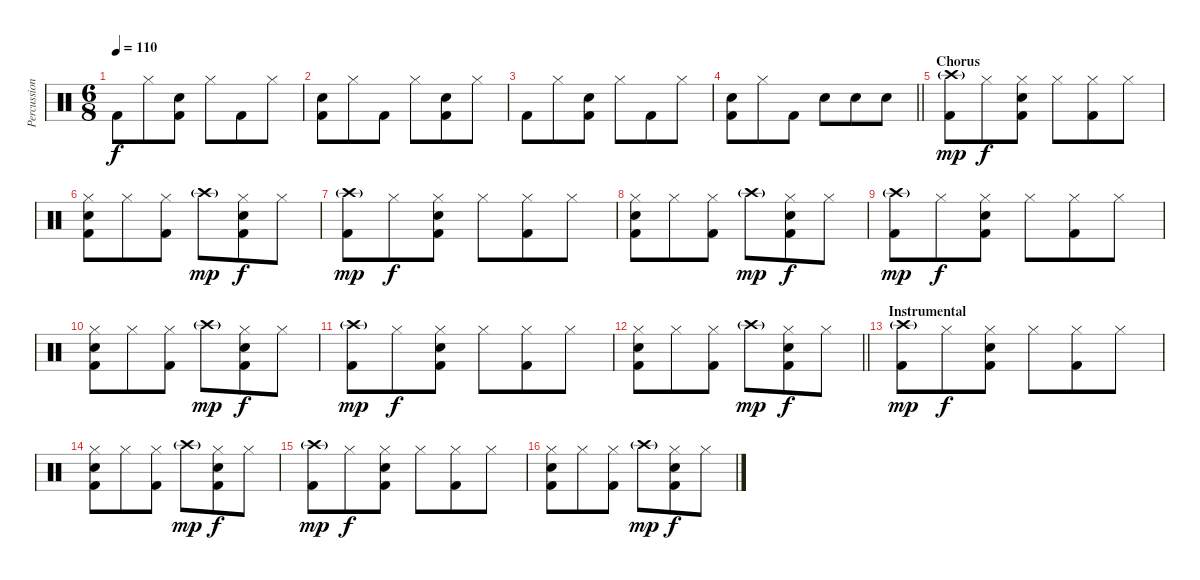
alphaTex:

\track ("Percussion" "Percussion") {instrument percussion}
\staff {score}
\articulation defaults
\ts (6 8)
\tempo 110
\clef neutral
\ks c "Kick (hit) 2".8{dy f} "Hi-Hat (closed)".8
("Snare (hit) 2" "Kick (hit) 2").8 "Hi-Hat (closed)".8 "Kick (hit) 2".8 "Hi-Hat (closed)".8 |
("Snare (hit) 2" "Kick (hit) 2").8 "Hi-Hat (closed)".8 "Kick (hit) 2".8 "Hi-Hat (closed)".8 ("Snare (hit) 2" "Kick (hit) 2").8 "Hi-Hat (closed)".8 |
"Kick (hit) 2".8 "Hi-Hat (closed)".8 ("Snare (hit) 2" "Kick (hit) 2").8 "Hi-Hat (closed)".8 "Kick (hit) 2".8 "Hi-Hat (closed)".8 |
\barLineRight lightlight
("Snare (hit) 2" "Kick (hit) 2").8 "Hi-Hat (closed)".8 "Kick (hit) 2".8 "Snare (hit) 2".8 "Snare (hit) 2".8 "Snare (hit) 2".8 |
\section ("" "Chorus")
("Crash high (hit)"{g} "Kick (hit) 2").8{dy mp} "Hi-Hat (closed)".8{dy f} ("Hi-Hat (closed)" "Snare (hit) 2" "Kick (hit) 2").8 "Hi-Hat (closed)".8 ("Hi-Hat (closed)" "Kick (hit) 2").8 "Hi-Hat (closed)".8 |
("Hi-Hat (closed)" "Snare (hit) 2" "Kick (hit) 2").8 "Hi-Hat (closed)".8 ("Hi-Hat (closed)" "Kick (hit) 2").8 "Crash high (hit)"{g}.8{dy mp} ("Hi-Hat (closed)" "Snare (hit) 2" "Kick (hit) 2").8{dy f} "Hi-Hat (closed)".8 |
("Crash high (hit)"{g} "Kick (hit) 2").8{dy mp} "Hi-Hat (closed)".8{dy f} ("Hi-Hat (closed)" "Snare (hit) 2" "Kick (hit) 2").8 "Hi-Hat (closed)".8 ("Hi-Hat (closed)" "Kick (hit) 2").8 "Hi-Hat (closed)".8 |
("Hi-Hat (closed)" "Snare (hit) 2" "Kick (hit) 2").8 "Hi-Hat (closed)".8 ("Hi-Hat (closed)" "Kick (hit) 2").8 "Crash high (hit)"{g}.8{dy mp} ("Hi-Hat (closed)" "Snare (hit) 2" "Kick (hit) 2").8{dy f} "Hi-Hat (closed)".8 |
("Crash high (hit)"{g} "Kick (hit) 2").8{dy mp} "Hi-Hat (closed)".8{dy f} ("Hi-Hat (closed)" "Snare (hit) 2" "Kick (hit) 2").8 "Hi-Hat (closed)".8 ("Hi-Hat (closed)" "Kick (hit) 2").8 "Hi-Hat (closed)".8 |
("Hi-Hat (closed)" "Snare (hit) 2" "Kick (hit) 2").8 "Hi-Hat (closed)".8 ("Hi-Hat (closed)" "Kick (hit) 2").8 "Crash high (hit)"{g}.8{dy mp} ("Hi-Hat (closed)" "Snare (hit) 2" "Kick (hit) 2").8{dy f} "Hi-Hat (closed)".8 |
("Crash high (hit)"{g} "Kick (hit) 2").8{dy mp} "Hi-Hat (closed)".8{dy f} ("Hi-Hat (closed)" "Snare (hit) 2" "Kick (hit) 2").8 "Hi-Hat (closed)".8 ("Hi-Hat (closed)" "Kick (hit) 2").8 "Hi-Hat (closed)".8 |
\barLineRight lightlight
("Hi-Hat (closed)" "Snare (hit) 2" "Kick (hit) 2").8 "Hi-Hat (closed)".8 ("Hi-Hat (closed)" "Kick (hit) 2").8 "Crash high (hit)"{g}.8{dy mp} ("Hi-Hat (closed)" "Snare (hit) 2" "Kick (hit) 2").8{dy f} "Hi-Hat (closed)".8 |
\section ("" "Instrumental")
("Crash high (hit)"{g} "Kick (hit) 2").8{dy mp} "Hi-Hat (closed)".8{dy f} ("Hi-Hat (closed)" "Snare (hit) 2" "Kick (hit) 2").8 "Hi-Hat (closed)".8 ("Hi-Hat (closed)" "Kick (hit) 2").8 "Hi-Hat (closed)".8 |
("Hi-Hat (closed)" "Snare (hit) 2" "Kick (hit) 2").8 "Hi-Hat (closed)".8 ("Hi-Hat (closed)" "Kick (hit) 2").8 "Crash high (hit)"{g}.8{dy mp} ("Hi-Hat (closed)" "Snare (hit) 2" "Kick (hit) 2").8{dy f} "Hi-Hat (closed)".8 |
("Crash high (hit)"{g} "Kick (hit) 2").8{dy mp} "Hi-Hat (closed)".8{dy f} ("Hi-Hat (closed)" "Snare (hit) 2" "Kick (hit) 2").8 "Hi-Hat (closed)".8 ("Hi-Hat (closed)" "Kick (hit) 2").8 "Hi-Hat (closed)".8 |
("Hi-Hat (closed)" "Snare (hit) 2" "Kick (hit) 2").8 "Hi-Hat (closed)".8 ("Hi-Hat (closed)" "Kick (hit) 2").8 "Crash high (hit)"{g}.8{dy mp} ("Hi-Hat (closed)" "Snare (hit) 2" "Kick (hit) 2").8{dy f} "Hi-Hat (closed)".8
